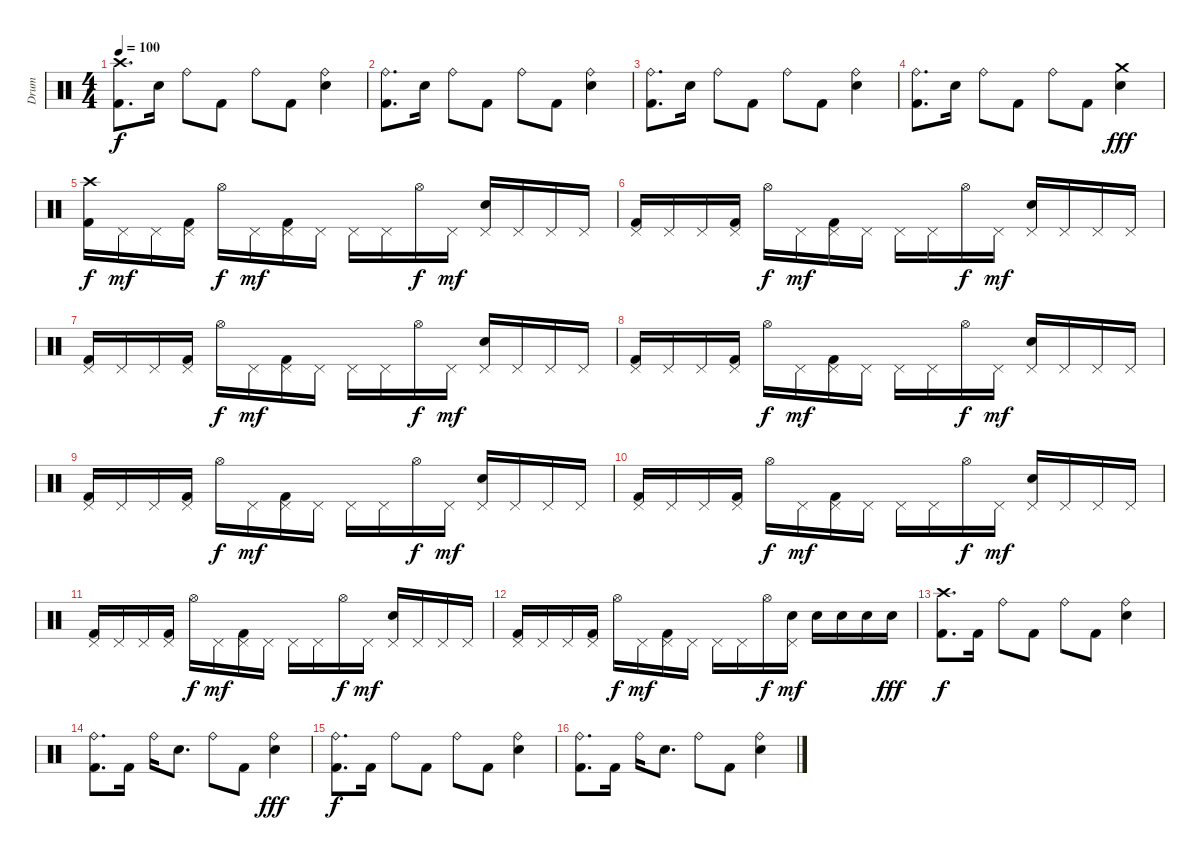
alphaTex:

\track ("Drum" "Drum") {instrument percussion}
\staff {score}
\articulation defaults
\ts (4 4)
\tempo 100
\clef neutral
\ks c
("Crash high (hit)" "Kick (hit) 2").8{d dy f} "Electric Snare (hit)".16 "Ride (bell)".8 "Kick (hit) 2".8 "Ride (bell)".8 "Kick (hit) 2".8 ("Ride (bell)" "Electric Snare (hit)").4 |
("Ride (bell)" "Kick (hit) 2").8{d} "Electric Snare (hit)".16 "Ride (bell)".8 "Kick (hit) 2".8 "Ride (bell)".8 "Kick (hit) 2".8 ("Ride (bell)" "Electric Snare (hit)").4 |
("Ride (bell)" "Kick (hit) 2").8{d} "Electric Snare (hit)".16 "Ride (bell)".8 "Kick (hit) 2".8 "Ride (bell)".8 "Kick (hit) 2".8 ("Ride (bell)" "Electric Snare (hit)").4 |
("Ride (bell)" "Kick (hit) 2").8{d} "Electric Snare (hit)".16 "Ride (bell)".8 "Kick (hit) 2".8 "Ride (bell)".8 "Kick (hit) 2".8 ("Crash medium (hit)" "Electric Snare (hit)").4{dy fff} |
("Crash high (hit)" "Kick (hit) 2").16{dy f} "Pedal Hi-Hat (hit)".16{dy mf} "Pedal Hi-Hat (hit)".16 ("Pedal Hi-Hat (hit)" "Kick (hit) 2").16 "Hi-Hat (open)".16{dy f} "Pedal Hi-Hat (hit)".16{dy mf} ("Pedal Hi-Hat (hit)" "Kick (hit) 2").16 "Pedal Hi-Hat (hit)".16 "Pedal Hi-Hat (hit)".16 "Pedal Hi-Hat (hit)".16 "Hi-Hat (open)".16{dy f} "Pedal Hi-Hat (hit)".16{dy mf} ("Pedal Hi-Hat (hit)" "Electric Snare (hit)").16 "Pedal Hi-Hat (hit)".16 "Pedal Hi-Hat (hit)".16 "Pedal Hi-Hat (hit)".16 |
("Pedal Hi-Hat (hit)" "Kick (hit) 2").16 "Pedal Hi-Hat (hit)".16 "Pedal Hi-Hat (hit)".16 ("Pedal Hi-Hat (hit)" "Kick (hit) 2").16 "Hi-Hat (open)".16{dy f} "Pedal Hi-Hat (hit)".16{dy mf} ("Pedal Hi-Hat (hit)" "Kick (hit) 2").16 "Pedal Hi-Hat (hit)".16 "Pedal Hi-Hat (hit)".16 "Pedal Hi-Hat (hit)".16 "Hi-Hat (open)".16{dy f} "Pedal Hi-Hat (hit)".16{dy mf} ("Pedal Hi-Hat (hit)" "Electric Snare (hit)").16 "Pedal Hi-Hat (hit)".16 "Pedal Hi-Hat (hit)".16 "Pedal Hi-Hat (hit)".16 |
("Pedal Hi-Hat (hit)" "Kick (hit) 2").16 "Pedal Hi-Hat (hit)".16 "Pedal Hi-Hat (hit)".16 ("Pedal Hi-Hat (hit)" "Kick (hit) 2").16 "Hi-Hat (open)".16{dy f} "Pedal Hi-Hat (hit)".16{dy mf} ("Pedal Hi-Hat (hit)" "Kick (hit) 2").16 "Pedal Hi-Hat (hit)".16 "Pedal Hi-Hat (hit)".16 "Pedal Hi-Hat (hit)".16 "Hi-Hat (open)".16{dy f} "Pedal Hi-Hat (hit)".16{dy mf} ("Pedal Hi-Hat (hit)" "Electric Snare (hit)").16 "Pedal Hi-Hat (hit)".16 "Pedal Hi-Hat (hit)".16 "Pedal Hi-Hat (hit)".16 |
("Pedal Hi-Hat (hit)" "Kick (hit) 2").16 "Pedal Hi-Hat (hit)".16 "Pedal Hi-Hat (hit)".16 ("Pedal Hi-Hat (hit)" "Kick (hit) 2").16 "Hi-Hat (open)".16{dy f} "Pedal Hi-Hat (hit)".16{dy mf} ("Pedal Hi-Hat (hit)" "Kick (hit) 2").16 "Pedal Hi-Hat (hit)".16 "Pedal Hi-Hat (hit)".16 "Pedal Hi-Hat (hit)".16 "Hi-Hat (open)".16{dy f} "Pedal Hi-Hat (hit)".16{dy mf} ("Pedal Hi-Hat (hit)" "Electric Snare (hit)").16 "Pedal Hi-Hat (hit)".16 "Pedal Hi-Hat (hit)".16 "Pedal Hi-Hat (hit)".16 |
("Pedal Hi-Hat (hit)" "Kick (hit) 2").16 "Pedal Hi-Hat (hit)".16 "Pedal Hi-Hat (hit)".16 ("Pedal Hi-Hat (hit)" "Kick (hit) 2").16 "Hi-Hat (open)".16{dy f} "Pedal Hi-Hat (hit)".16{dy mf} ("Pedal Hi-Hat (hit)" "Kick (hit) 2").16 "Pedal Hi-Hat (hit)".16 "Pedal Hi-Hat (hit)".16 "Pedal Hi-Hat (hit)".16 "Hi-Hat (open)".16{dy f} "Pedal Hi-Hat (hit)".16{dy mf} ("Pedal Hi-Hat (hit)" "Electric Snare (hit)").16 "Pedal Hi-Hat (hit)".16 "Pedal Hi-Hat (hit)".16 "Pedal Hi-Hat (hit)".16 |
("Pedal Hi-Hat (hit)" "Kick (hit) 2").16 "Pedal Hi-Hat (hit)".16 "Pedal Hi-Hat (hit)".16 ("Pedal Hi-Hat (hit)" "Kick (hit) 2").16 "Hi-Hat (open)".16{dy f} "Pedal Hi-Hat (hit)".16{dy mf} ("Pedal Hi-Hat (hit)" "Kick (hit) 2").16 "Pedal Hi-Hat (hit)".16 "Pedal Hi-Hat (hit)".16 "Pedal Hi-Hat (hit)".16 "Hi-Hat (open)".16{dy f} "Pedal Hi-Hat (hit)".16{dy mf} ("Pedal Hi-Hat (hit)" "Electric Snare (hit)").16 "Pedal Hi-Hat (hit)".16 "Pedal Hi-Hat (hit)".16 "Pedal Hi-Hat (hit)".16 |
("Pedal Hi-Hat (hit)" "Kick (hit) 2").16 "Pedal Hi-Hat (hit)".16 "Pedal Hi-Hat (hit)".16 ("Pedal Hi-Hat (hit)" "Kick (hit) 2").16 "Hi-Hat (open)".16{dy f} "Pedal Hi-Hat (hit)".16{dy mf} ("Pedal Hi-Hat (hit)" "Kick (hit) 2").16 "Pedal Hi-Hat (hit)".16 "Pedal Hi-Hat (hit)".16 "Pedal Hi-Hat (hit)".16 "Hi-Hat (open)".16{dy f} "Pedal Hi-Hat (hit)".16{dy mf} ("Pedal Hi-Hat (hit)" "Electric Snare (hit)").16 "Pedal Hi-Hat (hit)".16 "Pedal Hi-Hat (hit)".16 "Pedal Hi-Hat (hit)".16 |
("Pedal Hi-Hat (hit)" "Kick (hit) 2").16 "Pedal Hi-Hat (hit)".16 "Pedal Hi-Hat (hit)".16 ("Pedal Hi-Hat (hit)" "Kick (hit) 2").16 "Hi-Hat (open)".16{dy f} "Pedal Hi-Hat (hit)".16{dy mf} ("Pedal Hi-Hat (hit)" "Kick (hit) 2").16 "Pedal Hi-Hat (hit)".16 "Pedal Hi-Hat (hit)".16 "Pedal Hi-Hat (hit)".16 "Hi-Hat (open)".16{dy f} ("Pedal Hi-Hat (hit)" "Electric Snare (hit)").16{dy mf} "Electric Snare (hit)".16 "Electric Snare (hit)".16 "Electric Snare (hit)".16 "Electric Snare (hit)".16{dy fff} |
("Crash high (hit)" "Kick (hit) 2").8{d dy f} "Kick (hit) 2".16 "Ride (bell)".8 "Kick (hit) 2".8 "Ride (bell)".8 "Kick (hit) 2".8 ("Ride (bell)" "Electric Snare (hit)").4 |
("Ride (bell)" "Kick (hit) 2").8{d} "Kick (hit) 2".16 "Ride (bell)".16 "Electric Snare (hit)".8{d} "Ride (bell)".8 "Kick (hit) 2".8 ("Ride (bell)" "Electric Snare (hit)").4{dy fff} |
("Ride (bell)" "Kick (hit) 2").8{d dy f} "Kick (hit) 2".16 "Ride (bell)".8 "Kick (hit) 2".8 "Ride (bell)".8 "Kick (hit) 2".8 ("Ride (bell)" "Electric Snare (hit)").4 |
("Ride (bell)" "Kick (hit) 2").8{d} "Kick (hit) 2".16 "Ride (bell)".16 "Electric Snare (hit)".8{d} "Ride (bell)".8 "Kick (hit) 2".8 ("Ride (bell)" "Electric Snare (hit)").4
